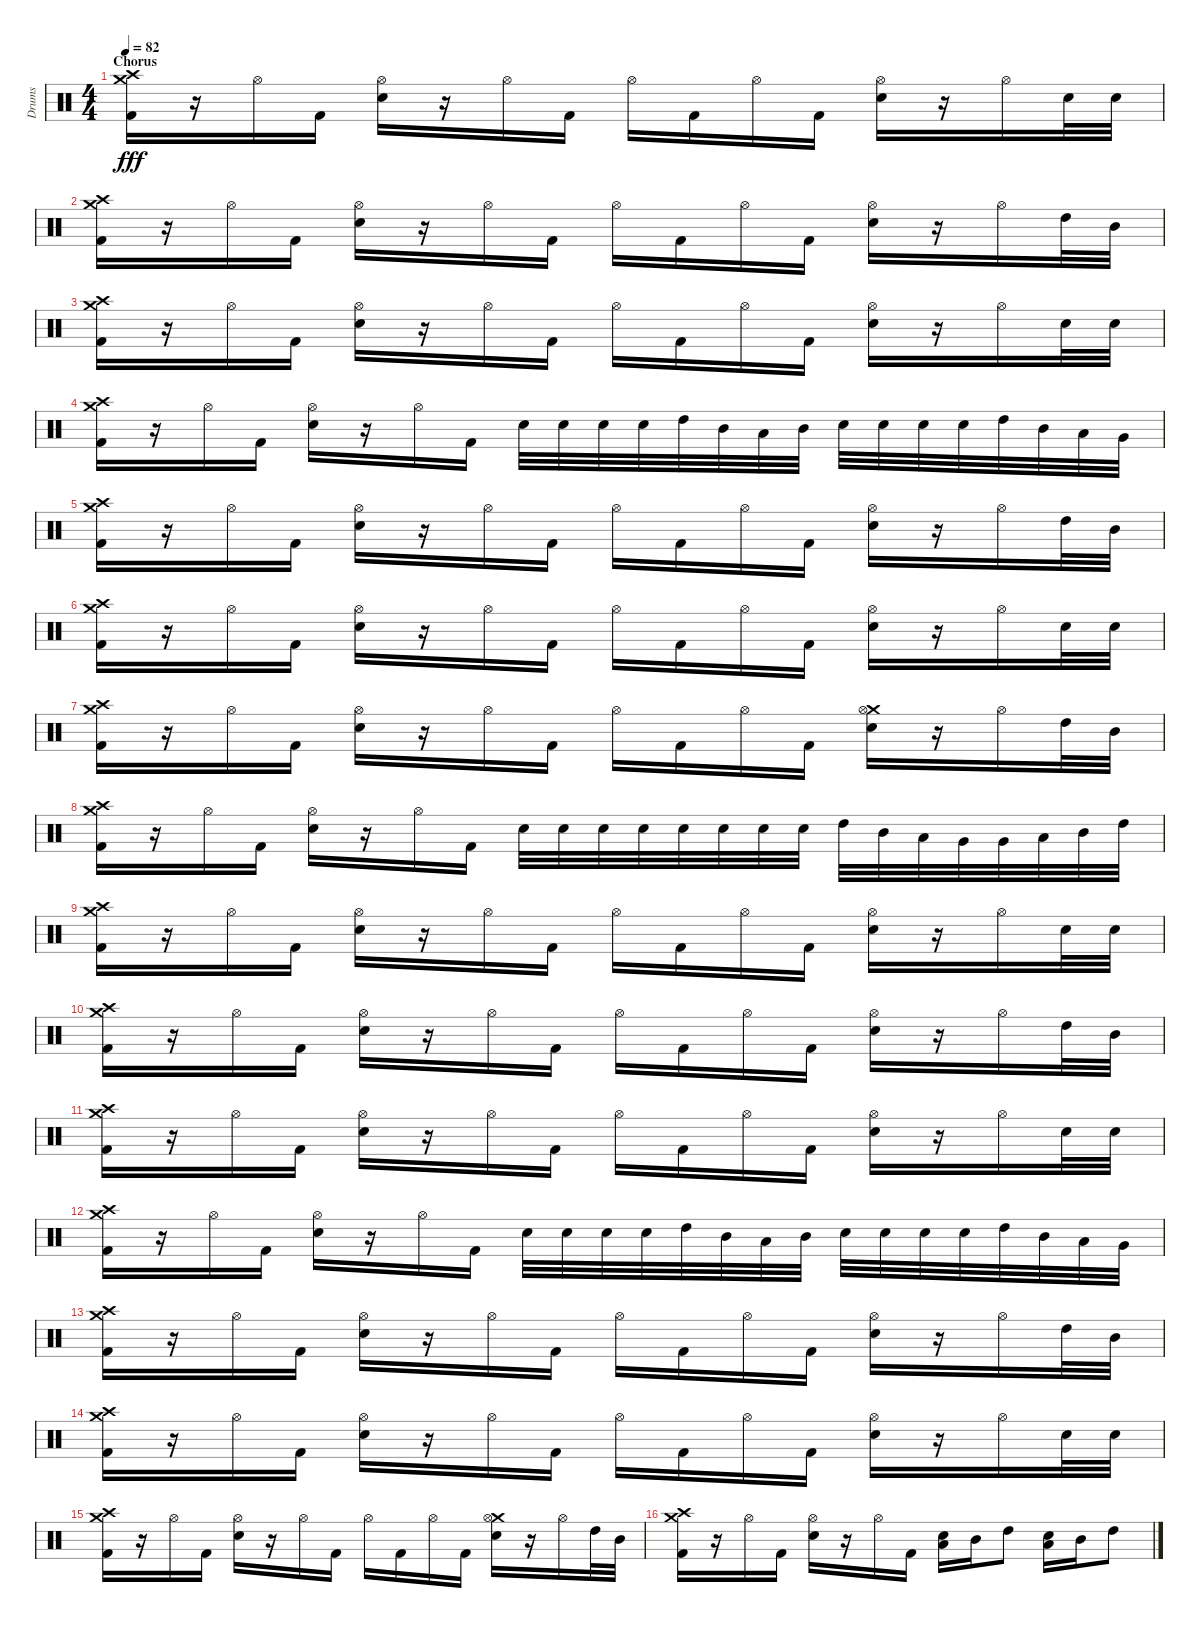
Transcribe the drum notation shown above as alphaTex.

\track ("Drums" "Drums") {instrument percussion}
\staff {score}
\articulation defaults
\ts (4 4)
\section ("" "Chorus")
\tempo 82
\clef neutral
\ks c
("Crash high (hit)" "Crash medium (hit)" "Kick (hit) 2").16{dy fff} r.16 "Hi-Hat (open)".16 "Kick (hit) 2".16 ("Hi-Hat (open)" "Electric Snare (hit)").16 r.16 "Hi-Hat (open)".16 "Kick (hit) 2".16 "Hi-Hat (open)".16 "Kick (hit) 2".16 "Hi-Hat (open)".16 "Kick (hit) 2".16 ("Hi-Hat (open)" "Electric Snare (hit)").16 r.16 "Hi-Hat (open)".16 "Electric Snare (hit)".32 "Electric Snare (hit)".32 |
("Crash high (hit)" "Crash medium (hit)" "Kick (hit) 2").16 r.16 "Hi-Hat (open)".16 "Kick (hit) 2".16 ("Hi-Hat (open)" "Electric Snare (hit)").16 r.16 "Hi-Hat (open)".16 "Kick (hit) 2".16 "Hi-Hat (open)".16 "Kick (hit) 2".16 "Hi-Hat (open)".16 "Kick (hit) 2".16 ("Hi-Hat (open)" "Electric Snare (hit)").16 r.16 "Hi-Hat (open)".16 "High Tom (hit)".32 "Mid Tom (hit)".32 |
("Crash high (hit)" "Crash medium (hit)" "Kick (hit) 2").16 r.16 "Hi-Hat (open)".16 "Kick (hit) 2".16 ("Hi-Hat (open)" "Electric Snare (hit)").16 r.16 "Hi-Hat (open)".16 "Kick (hit) 2".16 "Hi-Hat (open)".16 "Kick (hit) 2".16 "Hi-Hat (open)".16 "Kick (hit) 2".16 ("Hi-Hat (open)" "Electric Snare (hit)").16 r.16 "Hi-Hat (open)".16 "Electric Snare (hit)".32 "Electric Snare (hit)".32 |
("Crash high (hit)" "Crash medium (hit)" "Kick (hit) 2").16 r.16 "Hi-Hat (open)".16 "Kick (hit) 2".16 ("Hi-Hat (open)" "Electric Snare (hit)").16 r.16 "Hi-Hat (open)".16 "Kick (hit) 2".16 "Electric Snare (hit)".32 "Electric Snare (hit)".32 "Electric Snare (hit)".32 "Electric Snare (hit)".32 "High Tom (hit)".32 "Mid Tom (hit)".32 "Low Tom (hit)".32 "Mid Tom (hit)".32 "Electric Snare (hit)".32 "Electric Snare (hit)".32 "Electric Snare (hit)".32 "Electric Snare (hit)".32 "High Tom (hit)".32 "Mid Tom (hit)".32 "Low Tom (hit)".32 "Very Low Tom (hit)".32 |
("Crash high (hit)" "Crash medium (hit)" "Kick (hit) 2").16 r.16 "Hi-Hat (open)".16 "Kick (hit) 2".16 ("Hi-Hat (open)" "Electric Snare (hit)").16 r.16 "Hi-Hat (open)".16 "Kick (hit) 2".16 "Hi-Hat (open)".16 "Kick (hit) 2".16 "Hi-Hat (open)".16 "Kick (hit) 2".16 ("Hi-Hat (open)" "Electric Snare (hit)").16 r.16 "Hi-Hat (open)".16 "High Tom (hit)".32 "Mid Tom (hit)".32 |
("Crash high (hit)" "Crash medium (hit)" "Kick (hit) 2").16 r.16 "Hi-Hat (open)".16 "Kick (hit) 2".16 ("Hi-Hat (open)" "Electric Snare (hit)").16 r.16 "Hi-Hat (open)".16 "Kick (hit) 2".16 "Hi-Hat (open)".16 "Kick (hit) 2".16 "Hi-Hat (open)".16 "Kick (hit) 2".16 ("Hi-Hat (open)" "Electric Snare (hit)").16 r.16 "Hi-Hat (open)".16 "Electric Snare (hit)".32 "Electric Snare (hit)".32 |
("Crash high (hit)" "Crash medium (hit)" "Kick (hit) 2").16 r.16 "Hi-Hat (open)".16 "Kick (hit) 2".16 ("Hi-Hat (open)" "Electric Snare (hit)").16 r.16 "Hi-Hat (open)".16 "Kick (hit) 2".16 "Hi-Hat (open)".16 "Kick (hit) 2".16 "Hi-Hat (open)".16 "Kick (hit) 2".16 ("Crash medium (hit)" "Hi-Hat (open)" "Electric Snare (hit)").16 r.16 "Hi-Hat (open)".16 "High Tom (hit)".32 "Mid Tom (hit)".32 |
("Crash high (hit)" "Crash medium (hit)" "Kick (hit) 2").16 r.16 "Hi-Hat (open)".16 "Kick (hit) 2".16 ("Hi-Hat (open)" "Electric Snare (hit)").16 r.16 "Hi-Hat (open)".16 "Kick (hit) 2".16 "Electric Snare (hit)".32 "Electric Snare (hit)".32 "Electric Snare (hit)".32 "Electric Snare (hit)".32 "Electric Snare (hit)".32 "Electric Snare (hit)".32 "Electric Snare (hit)".32 "Electric Snare (hit)".32 "High Tom (hit)".32 "Mid Tom (hit)".32 "Low Tom (hit)".32 "Very Low Tom (hit)".32 "Very Low Tom (hit)".32 "Low Tom (hit)".32 "Mid Tom (hit)".32 "High Tom (hit)".32 |
("Crash high (hit)" "Crash medium (hit)" "Kick (hit) 2").16 r.16 "Hi-Hat (open)".16 "Kick (hit) 2".16 ("Hi-Hat (open)" "Electric Snare (hit)").16 r.16 "Hi-Hat (open)".16 "Kick (hit) 2".16 "Hi-Hat (open)".16 "Kick (hit) 2".16 "Hi-Hat (open)".16 "Kick (hit) 2".16 ("Hi-Hat (open)" "Electric Snare (hit)").16 r.16 "Hi-Hat (open)".16 "Electric Snare (hit)".32 "Electric Snare (hit)".32 |
("Crash high (hit)" "Crash medium (hit)" "Kick (hit) 2").16 r.16 "Hi-Hat (open)".16 "Kick (hit) 2".16 ("Hi-Hat (open)" "Electric Snare (hit)").16 r.16 "Hi-Hat (open)".16 "Kick (hit) 2".16 "Hi-Hat (open)".16 "Kick (hit) 2".16 "Hi-Hat (open)".16 "Kick (hit) 2".16 ("Hi-Hat (open)" "Electric Snare (hit)").16 r.16 "Hi-Hat (open)".16 "High Tom (hit)".32 "Mid Tom (hit)".32 |
("Crash high (hit)" "Crash medium (hit)" "Kick (hit) 2").16 r.16 "Hi-Hat (open)".16 "Kick (hit) 2".16 ("Hi-Hat (open)" "Electric Snare (hit)").16 r.16 "Hi-Hat (open)".16 "Kick (hit) 2".16 "Hi-Hat (open)".16 "Kick (hit) 2".16 "Hi-Hat (open)".16 "Kick (hit) 2".16 ("Hi-Hat (open)" "Electric Snare (hit)").16 r.16 "Hi-Hat (open)".16 "Electric Snare (hit)".32 "Electric Snare (hit)".32 |
("Crash high (hit)" "Crash medium (hit)" "Kick (hit) 2").16 r.16 "Hi-Hat (open)".16 "Kick (hit) 2".16 ("Hi-Hat (open)" "Electric Snare (hit)").16 r.16 "Hi-Hat (open)".16 "Kick (hit) 2".16 "Electric Snare (hit)".32 "Electric Snare (hit)".32 "Electric Snare (hit)".32 "Electric Snare (hit)".32 "High Tom (hit)".32 "Mid Tom (hit)".32 "Low Tom (hit)".32 "Mid Tom (hit)".32 "Electric Snare (hit)".32 "Electric Snare (hit)".32 "Electric Snare (hit)".32 "Electric Snare (hit)".32 "High Tom (hit)".32 "Mid Tom (hit)".32 "Low Tom (hit)".32 "Very Low Tom (hit)".32 |
("Crash high (hit)" "Crash medium (hit)" "Kick (hit) 2").16 r.16 "Hi-Hat (open)".16 "Kick (hit) 2".16 ("Hi-Hat (open)" "Electric Snare (hit)").16 r.16 "Hi-Hat (open)".16 "Kick (hit) 2".16 "Hi-Hat (open)".16 "Kick (hit) 2".16 "Hi-Hat (open)".16 "Kick (hit) 2".16 ("Hi-Hat (open)" "Electric Snare (hit)").16 r.16 "Hi-Hat (open)".16 "High Tom (hit)".32 "Mid Tom (hit)".32 |
("Crash high (hit)" "Crash medium (hit)" "Kick (hit) 2").16 r.16 "Hi-Hat (open)".16 "Kick (hit) 2".16 ("Hi-Hat (open)" "Electric Snare (hit)").16 r.16 "Hi-Hat (open)".16 "Kick (hit) 2".16 "Hi-Hat (open)".16 "Kick (hit) 2".16 "Hi-Hat (open)".16 "Kick (hit) 2".16 ("Hi-Hat (open)" "Electric Snare (hit)").16 r.16 "Hi-Hat (open)".16 "Electric Snare (hit)".32 "Electric Snare (hit)".32 |
("Crash high (hit)" "Crash medium (hit)" "Kick (hit) 2").16 r.16 "Hi-Hat (open)".16 "Kick (hit) 2".16 ("Hi-Hat (open)" "Electric Snare (hit)").16 r.16 "Hi-Hat (open)".16 "Kick (hit) 2".16 "Hi-Hat (open)".16 "Kick (hit) 2".16 "Hi-Hat (open)".16 "Kick (hit) 2".16 ("Crash medium (hit)" "Hi-Hat (open)" "Electric Snare (hit)").16 r.16 "Hi-Hat (open)".16 "High Tom (hit)".32 "Mid Tom (hit)".32 |
("Crash high (hit)" "Crash medium (hit)" "Kick (hit) 2").16 r.16 "Hi-Hat (open)".16 "Kick (hit) 2".16 ("Hi-Hat (open)" "Electric Snare (hit)").16 r.16 "Hi-Hat (open)".16 "Kick (hit) 2".16 ("Low Tom (hit)" "Electric Snare (hit)").16 "Mid Tom (hit)".16 "High Tom (hit)".8 ("Low Tom (hit)" "Electric Snare (hit)").16 "Mid Tom (hit)".16 "High Tom (hit)".8
